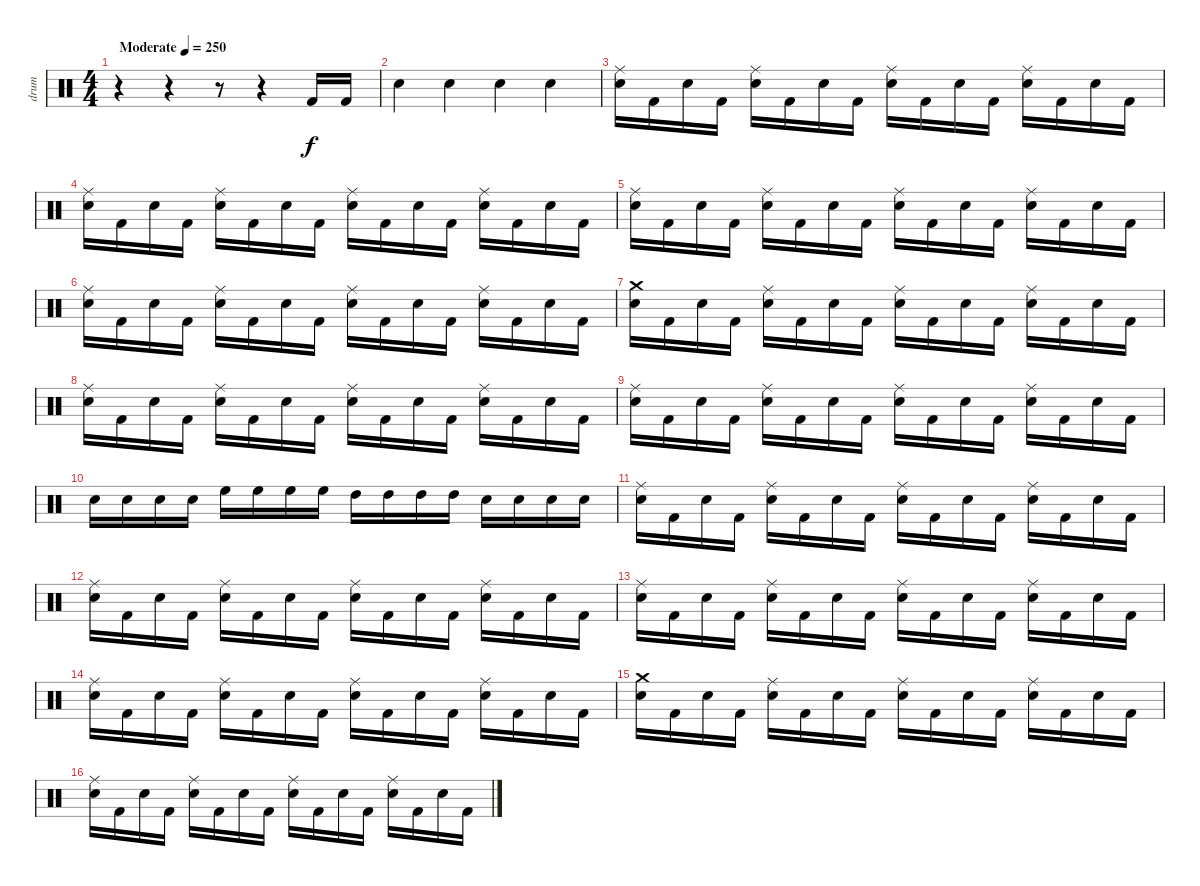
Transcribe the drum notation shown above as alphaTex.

\track ("drum" "drum") {instrument percussion}
\staff {score}
\articulation defaults
\ts (4 4)
\tempo (250 "Moderate")
\clef neutral
\ks c
r.4{dy f} r.4 r.8 r.4 "Kick (hit) 2".16 "Kick (hit) 2".16 |
"Snare (hit) 2".4 "Snare (hit) 2".4 "Snare (hit) 2".4 "Snare (hit) 2".4 |
("Ride (middle)" "Snare (hit) 2").16 "Kick (hit) 2".16 "Snare (hit) 2".16 "Kick (hit) 2".16 ("Ride (middle)" "Snare (hit) 2").16 "Kick (hit) 2".16 "Snare (hit) 2".16 "Kick (hit) 2".16 ("Ride (middle)" "Snare (hit) 2").16 "Kick (hit) 2".16 "Snare (hit) 2".16 "Kick (hit) 2".16 ("Ride (middle)" "Snare (hit) 2").16 "Kick (hit) 2".16 "Snare (hit) 2".16 "Kick (hit) 2".16 |
("Ride (middle)" "Snare (hit) 2").16 "Kick (hit) 2".16 "Snare (hit) 2".16 "Kick (hit) 2".16 ("Ride (middle)" "Snare (hit) 2").16 "Kick (hit) 2".16 "Snare (hit) 2".16 "Kick (hit) 2".16 ("Ride (middle)" "Snare (hit) 2").16 "Kick (hit) 2".16 "Snare (hit) 2".16 "Kick (hit) 2".16 ("Ride (middle)" "Snare (hit) 2").16 "Kick (hit) 2".16 "Snare (hit) 2".16 "Kick (hit) 2".16 |
("Ride (middle)" "Snare (hit) 2").16 "Kick (hit) 2".16 "Snare (hit) 2".16 "Kick (hit) 2".16 ("Ride (middle)" "Snare (hit) 2").16 "Kick (hit) 2".16 "Snare (hit) 2".16 "Kick (hit) 2".16 ("Ride (middle)" "Snare (hit) 2").16 "Kick (hit) 2".16 "Snare (hit) 2".16 "Kick (hit) 2".16 ("Ride (middle)" "Snare (hit) 2").16 "Kick (hit) 2".16 "Snare (hit) 2".16 "Kick (hit) 2".16 |
("Ride (middle)" "Snare (hit) 2").16 "Kick (hit) 2".16 "Snare (hit) 2".16 "Kick (hit) 2".16 ("Ride (middle)" "Snare (hit) 2").16 "Kick (hit) 2".16 "Snare (hit) 2".16 "Kick (hit) 2".16 ("Ride (middle)" "Snare (hit) 2").16 "Kick (hit) 2".16 "Snare (hit) 2".16 "Kick (hit) 2".16 ("Ride (middle)" "Snare (hit) 2").16 "Kick (hit) 2".16 "Snare (hit) 2".16 "Kick (hit) 2".16 |
("Crash medium (hit)" "Snare (hit) 2").16 "Kick (hit) 2".16 "Snare (hit) 2".16 "Kick (hit) 2".16 ("Ride (middle)" "Snare (hit) 2").16 "Kick (hit) 2".16 "Snare (hit) 2".16 "Kick (hit) 2".16 ("Ride (middle)" "Snare (hit) 2").16 "Kick (hit) 2".16 "Snare (hit) 2".16 "Kick (hit) 2".16 ("Ride (middle)" "Snare (hit) 2").16 "Kick (hit) 2".16 "Snare (hit) 2".16 "Kick (hit) 2".16 |
("Ride (middle)" "Snare (hit) 2").16 "Kick (hit) 2".16 "Snare (hit) 2".16 "Kick (hit) 2".16 ("Ride (middle)" "Snare (hit) 2").16 "Kick (hit) 2".16 "Snare (hit) 2".16 "Kick (hit) 2".16 ("Ride (middle)" "Snare (hit) 2").16 "Kick (hit) 2".16 "Snare (hit) 2".16 "Kick (hit) 2".16 ("Ride (middle)" "Snare (hit) 2").16 "Kick (hit) 2".16 "Snare (hit) 2".16 "Kick (hit) 2".16 |
("Ride (middle)" "Snare (hit) 2").16 "Kick (hit) 2".16 "Snare (hit) 2".16 "Kick (hit) 2".16 ("Ride (middle)" "Snare (hit) 2").16 "Kick (hit) 2".16 "Snare (hit) 2".16 "Kick (hit) 2".16 ("Ride (middle)" "Snare (hit) 2").16 "Kick (hit) 2".16 "Snare (hit) 2".16 "Kick (hit) 2".16 ("Ride (middle)" "Snare (hit) 2").16 "Kick (hit) 2".16 "Snare (hit) 2".16 "Kick (hit) 2".16 |
"Snare (hit) 2".16 "Snare (hit) 2".16 "Snare (hit) 2".16 "Snare (hit) 2".16 "High Floor Tom (hit)".16 "High Floor Tom (hit)".16 "High Floor Tom (hit)".16 "High Floor Tom (hit)".16 "High Tom (hit)".16 "High Tom (hit)".16 "High Tom (hit)".16 "High Tom (hit)".16 "Snare (hit) 2".16 "Snare (hit) 2".16 "Snare (hit) 2".16 "Snare (hit) 2".16 |
("Ride (middle)" "Snare (hit) 2").16 "Kick (hit) 2".16 "Snare (hit) 2".16 "Kick (hit) 2".16 ("Ride (middle)" "Snare (hit) 2").16 "Kick (hit) 2".16 "Snare (hit) 2".16 "Kick (hit) 2".16 ("Ride (middle)" "Snare (hit) 2").16 "Kick (hit) 2".16 "Snare (hit) 2".16 "Kick (hit) 2".16 ("Ride (middle)" "Snare (hit) 2").16 "Kick (hit) 2".16 "Snare (hit) 2".16 "Kick (hit) 2".16 |
("Ride (middle)" "Snare (hit) 2").16 "Kick (hit) 2".16 "Snare (hit) 2".16 "Kick (hit) 2".16 ("Ride (middle)" "Snare (hit) 2").16 "Kick (hit) 2".16 "Snare (hit) 2".16 "Kick (hit) 2".16 ("Ride (middle)" "Snare (hit) 2").16 "Kick (hit) 2".16 "Snare (hit) 2".16 "Kick (hit) 2".16 ("Ride (middle)" "Snare (hit) 2").16 "Kick (hit) 2".16 "Snare (hit) 2".16 "Kick (hit) 2".16 |
("Ride (middle)" "Snare (hit) 2").16 "Kick (hit) 2".16 "Snare (hit) 2".16 "Kick (hit) 2".16 ("Ride (middle)" "Snare (hit) 2").16 "Kick (hit) 2".16 "Snare (hit) 2".16 "Kick (hit) 2".16 ("Ride (middle)" "Snare (hit) 2").16 "Kick (hit) 2".16 "Snare (hit) 2".16 "Kick (hit) 2".16 ("Ride (middle)" "Snare (hit) 2").16 "Kick (hit) 2".16 "Snare (hit) 2".16 "Kick (hit) 2".16 |
("Ride (middle)" "Snare (hit) 2").16 "Kick (hit) 2".16 "Snare (hit) 2".16 "Kick (hit) 2".16 ("Ride (middle)" "Snare (hit) 2").16 "Kick (hit) 2".16 "Snare (hit) 2".16 "Kick (hit) 2".16 ("Ride (middle)" "Snare (hit) 2").16 "Kick (hit) 2".16 "Snare (hit) 2".16 "Kick (hit) 2".16 ("Ride (middle)" "Snare (hit) 2").16 "Kick (hit) 2".16 "Snare (hit) 2".16 "Kick (hit) 2".16 |
("Crash medium (hit)" "Snare (hit) 2").16 "Kick (hit) 2".16 "Snare (hit) 2".16 "Kick (hit) 2".16 ("Ride (middle)" "Snare (hit) 2").16 "Kick (hit) 2".16 "Snare (hit) 2".16 "Kick (hit) 2".16 ("Ride (middle)" "Snare (hit) 2").16 "Kick (hit) 2".16 "Snare (hit) 2".16 "Kick (hit) 2".16 ("Ride (middle)" "Snare (hit) 2").16 "Kick (hit) 2".16 "Snare (hit) 2".16 "Kick (hit) 2".16 |
("Ride (middle)" "Snare (hit) 2").16 "Kick (hit) 2".16 "Snare (hit) 2".16 "Kick (hit) 2".16 ("Ride (middle)" "Snare (hit) 2").16 "Kick (hit) 2".16 "Snare (hit) 2".16 "Kick (hit) 2".16 ("Ride (middle)" "Snare (hit) 2").16 "Kick (hit) 2".16 "Snare (hit) 2".16 "Kick (hit) 2".16 ("Ride (middle)" "Snare (hit) 2").16 "Kick (hit) 2".16 "Snare (hit) 2".16 "Kick (hit) 2".16
